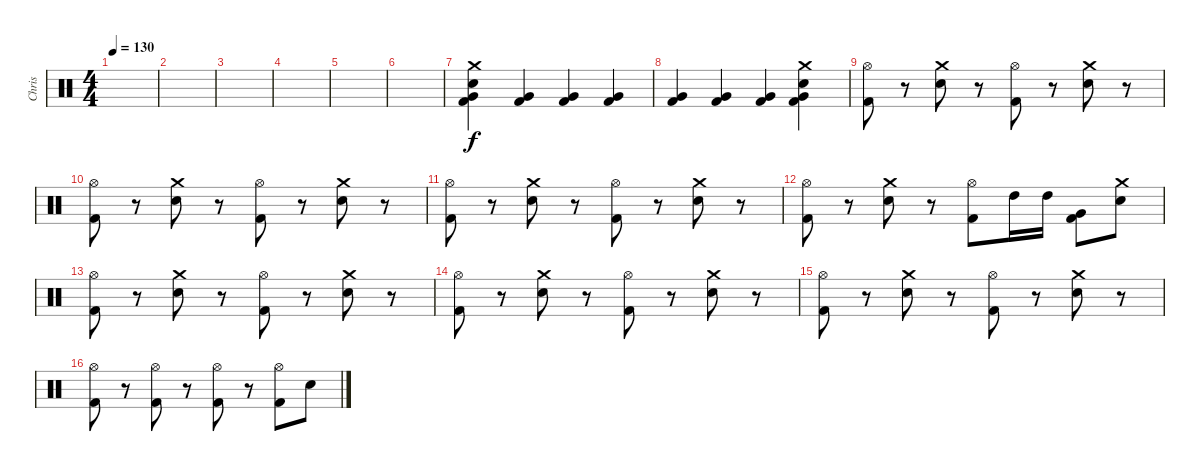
\track ("Chris" "Chris") {instrument percussion}
\staff {score}
\articulation defaults
\ts (4 4)
\tempo 130
\clef neutral
\ks c
|
|
|
|
|
|
("Kick (hit) 2" "Very Low Tom (hit)" "Electric Snare (hit)" "Crash medium (hit)").4 ("Kick (hit) 2" "Very Low Tom (hit)").4 ("Kick (hit) 2" "Very Low Tom (hit)").4 ("Kick (hit) 2" "Very Low Tom (hit)").4 |
("Kick (hit) 2" "Very Low Tom (hit)").4 ("Kick (hit) 2" "Very Low Tom (hit)").4 ("Kick (hit) 2" "Very Low Tom (hit)").4 ("Kick (hit) 2" "Very Low Tom (hit)" "Electric Snare (hit)" "Crash medium (hit)").4 |
("Hi-Hat (open)" "Kick (hit) 2").8 r.8 ("Crash medium (hit)" "Electric Snare (hit)").8 r.8 ("Hi-Hat (open)" "Kick (hit) 2").8 r.8 ("Crash medium (hit)" "Electric Snare (hit)").8 r.8 |
("Hi-Hat (open)" "Kick (hit) 2").8 r.8 ("Crash medium (hit)" "Electric Snare (hit)").8 r.8 ("Hi-Hat (open)" "Kick (hit) 2").8 r.8 ("Crash medium (hit)" "Electric Snare (hit)").8 r.8 |
("Hi-Hat (open)" "Kick (hit) 2").8 r.8 ("Crash medium (hit)" "Electric Snare (hit)").8 r.8 ("Hi-Hat (open)" "Kick (hit) 2").8 r.8 ("Crash medium (hit)" "Electric Snare (hit)").8 r.8 |
("Hi-Hat (open)" "Kick (hit) 2").8 r.8 ("Crash medium (hit)" "Electric Snare (hit)").8 r.8 ("Hi-Hat (open)" "Kick (hit) 2").8 "High Tom (hit)".16 "High Tom (hit)".16 ("Very Low Tom (hit)" "Kick (hit) 2").8 ("Electric Snare (hit)" "Crash medium (hit)").8 |
("Hi-Hat (open)" "Kick (hit) 2").8 r.8 ("Crash medium (hit)" "Electric Snare (hit)").8 r.8 ("Hi-Hat (open)" "Kick (hit) 2").8 r.8 ("Crash medium (hit)" "Electric Snare (hit)").8 r.8 |
("Hi-Hat (open)" "Kick (hit) 2").8 r.8 ("Crash medium (hit)" "Electric Snare (hit)").8 r.8 ("Hi-Hat (open)" "Kick (hit) 2").8 r.8 ("Crash medium (hit)" "Electric Snare (hit)").8 r.8 |
("Hi-Hat (open)" "Kick (hit) 2").8 r.8 ("Crash medium (hit)" "Electric Snare (hit)").8 r.8 ("Hi-Hat (open)" "Kick (hit) 2").8 r.8 ("Crash medium (hit)" "Electric Snare (hit)").8 r.8 |
("Hi-Hat (open)" "Kick (hit) 2").8 r.8 ("Hi-Hat (open)" "Kick (hit) 2").8 r.8 ("Hi-Hat (open)" "Kick (hit) 2").8 r.8 ("Hi-Hat (open)" "Kick (hit) 2").8 "Electric Snare (hit)".8
